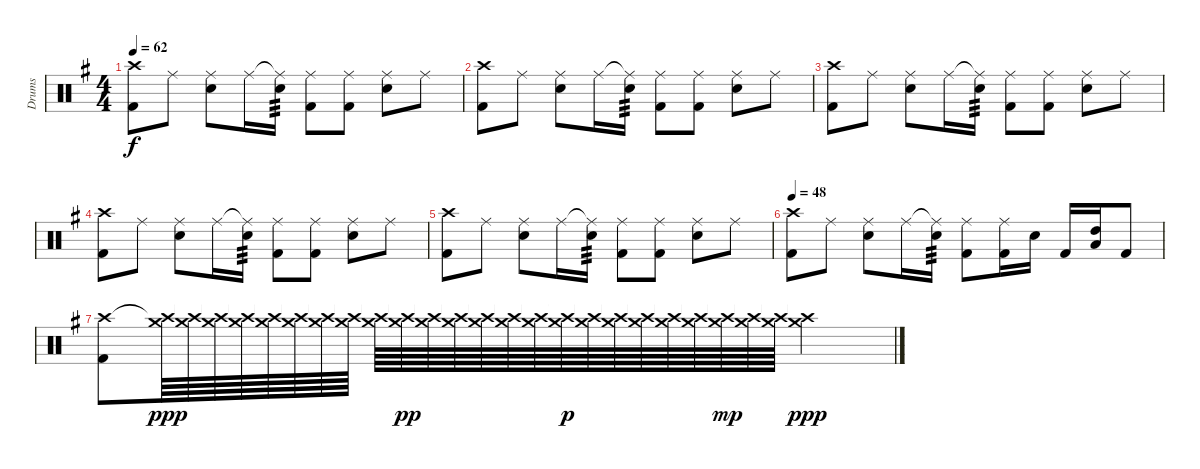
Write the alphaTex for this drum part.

\track ("Drums" "Drums") {instrument percussion}
\staff {score}
\articulation defaults
\ts (4 4)
\tempo 62
\clef neutral
\ks g
("Crash high (hit)" "Kick (hit) 2").8{dy f} "Ride (middle)".8 ("Ride (middle)" "Snare (hit) 2").8 "Ride (middle)".16 ("Ride (middle)"{t} "Snare (hit) 2").16{tp 3} ("Ride (middle)" "Kick (hit) 2").8 ("Ride (middle)" "Kick (hit) 2").8 ("Ride (middle)" "Snare (hit) 2").8 "Ride (middle)".8 |
("Crash high (hit)" "Kick (hit) 2").8 "Ride (middle)".8 ("Ride (middle)" "Snare (hit) 2").8 "Ride (middle)".16 ("Ride (middle)"{t} "Snare (hit) 2").16{tp 3} ("Ride (middle)" "Kick (hit) 2").8 ("Ride (middle)" "Kick (hit) 2").8 ("Ride (middle)" "Snare (hit) 2").8 "Ride (middle)".8 |
("Crash high (hit)" "Kick (hit) 2").8 "Ride (middle)".8 ("Ride (middle)" "Snare (hit) 2").8 "Ride (middle)".16 ("Ride (middle)"{t} "Snare (hit) 2").16{tp 3} ("Ride (middle)" "Kick (hit) 2").8 ("Ride (middle)" "Kick (hit) 2").8 ("Ride (middle)" "Snare (hit) 2").8 "Ride (middle)".8 |
("Crash high (hit)" "Kick (hit) 2").8 "Ride (middle)".8 ("Ride (middle)" "Snare (hit) 2").8 "Ride (middle)".16 ("Ride (middle)"{t} "Snare (hit) 2").16{tp 3} ("Ride (middle)" "Kick (hit) 2").8 ("Ride (middle)" "Kick (hit) 2").8 ("Ride (middle)" "Snare (hit) 2").8 "Ride (middle)".8 |
("Crash high (hit)" "Kick (hit) 2").8 "Ride (middle)".8 ("Ride (middle)" "Snare (hit) 2").8 "Ride (middle)".16 ("Ride (middle)"{t} "Snare (hit) 2").16{tp 3} ("Ride (middle)" "Kick (hit) 2").8 ("Ride (middle)" "Kick (hit) 2").8 ("Ride (middle)" "Snare (hit) 2").8 "Ride (middle)".8 |
\tempo 48
("Crash high (hit)" "Kick (hit) 2").8 "Ride (middle)".8 ("Ride (middle)" "Snare (hit) 2").8 "Ride (middle)".16 ("Ride (middle)"{t} "Snare (hit) 2").16{tp 3} ("Ride (middle)" "Kick (hit) 2").8 ("Ride (middle)" "Kick (hit) 2").16 "Snare (hit) 2".16 "Kick (hit) 2".16 ("High Tom (hit)" "Low Tom (hit)").16 "Kick (hit) 2".8 |
("Crash high (hit)" "Kick (hit) 2").8 ("Crash high (hit)"{t} "Crash medium (hit)").64{dy ppp} ("Crash high (hit)"{t} "Crash medium (hit)").64 ("Crash high (hit)"{t} "Crash medium (hit)").64 ("Crash high (hit)"{t} "Crash medium (hit)").64 ("Crash high (hit)"{t} "Crash medium (hit)").64 ("Crash high (hit)"{t} "Crash medium (hit)").64 ("Crash high (hit)"{t} "Crash medium (hit)").64 ("Crash high (hit)"{t} "Crash medium (hit)").64 ("Crash high (hit)"{t} "Crash medium (hit)").64 ("Crash high (hit)"{t} "Crash medium (hit)").64{dy pp} ("Crash high (hit)"{t} "Crash medium (hit)").64 ("Crash high (hit)"{t} "Crash medium (hit)").64 ("Crash high (hit)"{t} "Crash medium (hit)").64 ("Crash high (hit)"{t} "Crash medium (hit)").64 ("Crash high (hit)"{t} "Crash medium (hit)").64 ("Crash high (hit)"{t} "Crash medium (hit)").64{dy p} ("Crash high (hit)"{t} "Crash medium (hit)").64 ("Crash high (hit)"{t} "Crash medium (hit)").64 ("Crash high (hit)"{t} "Crash medium (hit)").64 ("Crash high (hit)"{t} "Crash medium (hit)").64 ("Crash high (hit)"{t} "Crash medium (hit)").64 ("Crash high (hit)"{t} "Crash medium (hit)").64{dy mp} ("Crash high (hit)"{t} "Crash medium (hit)").64 ("Crash high (hit)"{t} "Crash medium (hit)").64 ("Crash high (hit)"{t} "Crash medium (hit)").2{dy ppp}
